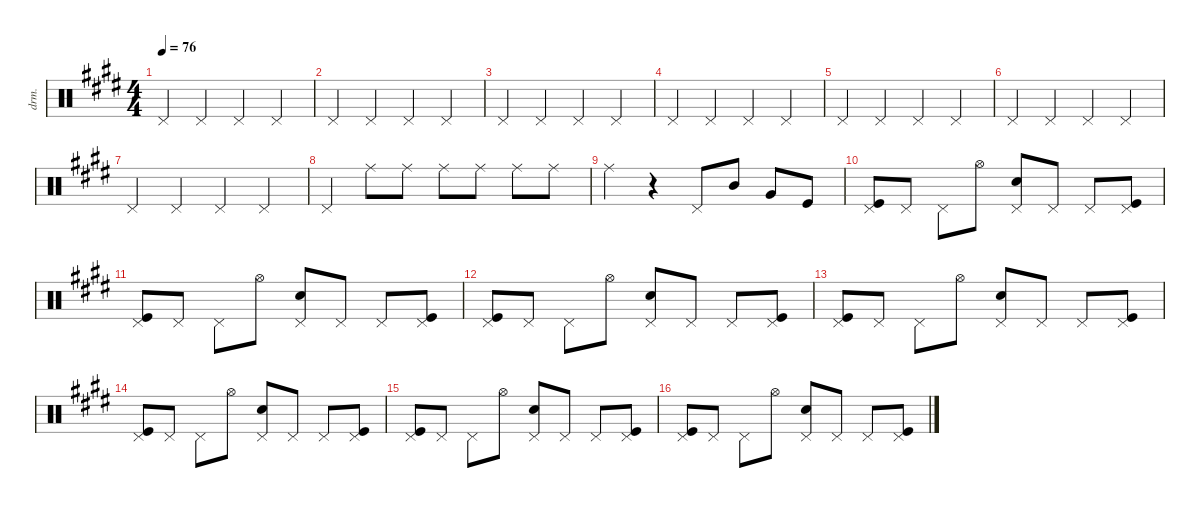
\defaultSystemsLayout 4
\hideDynamics
\bracketExtendMode nobrackets
\otherSystemsTrackNameOrientation horizontal
\track ("Drums" "drm.") {instrument percussion}
\staff {score}
\articulation defaults
\ts (4 4)
\tempo 76
\clef neutral
\ks c#minor "Pedal Hi-Hat (hit)"{acc forcenatural}.4{dy f} "Pedal Hi-Hat (hit)"{acc forcenatural}.4 "Pedal Hi-Hat (hit)"{acc forcenatural}.4 "Pedal Hi-Hat (hit)"{acc forcenatural}.4
|
"Pedal Hi-Hat (hit)"{acc forcenatural}.4 "Pedal Hi-Hat (hit)"{acc forcenatural}.4 "Pedal Hi-Hat (hit)"{acc forcenatural}.4 "Pedal Hi-Hat (hit)"{acc forcenatural}.4 |
"Pedal Hi-Hat (hit)"{acc forcenatural}.4 "Pedal Hi-Hat (hit)"{acc forcenatural}.4 "Pedal Hi-Hat (hit)"{acc forcenatural}.4 "Pedal Hi-Hat (hit)"{acc forcenatural}.4 |
"Pedal Hi-Hat (hit)"{acc forcenatural}.4 "Pedal Hi-Hat (hit)"{acc forcenatural}.4 "Pedal Hi-Hat (hit)"{acc forcenatural}.4 "Pedal Hi-Hat (hit)"{acc forcenatural}.4 |
"Pedal Hi-Hat (hit)"{acc forcenatural}.4 "Pedal Hi-Hat (hit)"{acc forcenatural}.4 "Pedal Hi-Hat (hit)"{acc forcenatural}.4 "Pedal Hi-Hat (hit)"{acc forcenatural}.4 |
"Pedal Hi-Hat (hit)"{acc forcenatural}.4 "Pedal Hi-Hat (hit)"{acc forcenatural}.4 "Pedal Hi-Hat (hit)"{acc forcenatural}.4 "Pedal Hi-Hat (hit)"{acc forcenatural}.4 |
"Pedal Hi-Hat (hit)"{acc forcenatural}.4 "Pedal Hi-Hat (hit)"{acc forcenatural}.4 "Pedal Hi-Hat (hit)"{acc forcenatural}.4 "Pedal Hi-Hat (hit)"{acc forcenatural}.4 |
"Pedal Hi-Hat (hit)"{acc forcenatural}.4 "Ride (middle)"{acc forcenatural}.8 "Ride (middle)"{acc forcenatural}.8 "Ride (middle)"{acc forcenatural}.8 "Ride (middle)"{acc forcenatural}.8 "Ride (middle)"{acc forcenatural}.8 "Ride (middle)"{acc forcenatural}.8 |
"Ride (middle)"{acc forcenatural}.4 r.4 "Pedal Hi-Hat (hit)"{acc forcenatural}.8 "Mid Tom (hit)"{acc forcenatural}.8 "Very Low Tom (hit)"{acc forcenatural}.8 "Kick (hit)"{acc forcenatural}.8 |
("Pedal Hi-Hat (hit)"{acc forcenatural} "Kick (hit)"{acc forcenatural}).8 "Pedal Hi-Hat (hit)"{acc forcenatural}.8 "Pedal Hi-Hat (hit)"{acc forcenatural}.8 "Hi-Hat (open)"{acc forcenatural}.8 ("Snare (hit) 2"{acc forcenatural} "Pedal Hi-Hat (hit)"{acc forcenatural}).8 "Pedal Hi-Hat (hit)"{acc forcenatural}.8 "Pedal Hi-Hat (hit)"{acc forcenatural}.8 ("Kick (hit)"{acc forcenatural} "Pedal Hi-Hat (hit)"{acc forcenatural}).8 |
("Pedal Hi-Hat (hit)"{acc forcenatural} "Kick (hit)"{acc forcenatural}).8 "Pedal Hi-Hat (hit)"{acc forcenatural}.8 "Pedal Hi-Hat (hit)"{acc forcenatural}.8 "Hi-Hat (open)"{acc forcenatural}.8 ("Snare (hit) 2"{acc forcenatural} "Pedal Hi-Hat (hit)"{acc forcenatural}).8 "Pedal Hi-Hat (hit)"{acc forcenatural}.8 "Pedal Hi-Hat (hit)"{acc forcenatural}.8 ("Kick (hit)"{acc forcenatural} "Pedal Hi-Hat (hit)"{acc forcenatural}).8 |
("Pedal Hi-Hat (hit)"{acc forcenatural} "Kick (hit)"{acc forcenatural}).8 "Pedal Hi-Hat (hit)"{acc forcenatural}.8 "Pedal Hi-Hat (hit)"{acc forcenatural}.8 "Hi-Hat (open)"{acc forcenatural}.8 ("Snare (hit) 2"{acc forcenatural} "Pedal Hi-Hat (hit)"{acc forcenatural}).8 "Pedal Hi-Hat (hit)"{acc forcenatural}.8 "Pedal Hi-Hat (hit)"{acc forcenatural}.8 ("Kick (hit)"{acc forcenatural} "Pedal Hi-Hat (hit)"{acc forcenatural}).8 |
("Pedal Hi-Hat (hit)"{acc forcenatural} "Kick (hit)"{acc forcenatural}).8 "Pedal Hi-Hat (hit)"{acc forcenatural}.8 "Pedal Hi-Hat (hit)"{acc forcenatural}.8 "Hi-Hat (open)"{acc forcenatural}.8 ("Snare (hit) 2"{acc forcenatural} "Pedal Hi-Hat (hit)"{acc forcenatural}).8 "Pedal Hi-Hat (hit)"{acc forcenatural}.8 "Pedal Hi-Hat (hit)"{acc forcenatural}.8 ("Kick (hit)"{acc forcenatural} "Pedal Hi-Hat (hit)"{acc forcenatural}).8 |
("Pedal Hi-Hat (hit)"{acc forcenatural} "Kick (hit)"{acc forcenatural}).8 "Pedal Hi-Hat (hit)"{acc forcenatural}.8 "Pedal Hi-Hat (hit)"{acc forcenatural}.8 "Hi-Hat (open)"{acc forcenatural}.8 ("Snare (hit) 2"{acc forcenatural} "Pedal Hi-Hat (hit)"{acc forcenatural}).8 "Pedal Hi-Hat (hit)"{acc forcenatural}.8 "Pedal Hi-Hat (hit)"{acc forcenatural}.8 ("Kick (hit)"{acc forcenatural} "Pedal Hi-Hat (hit)"{acc forcenatural}).8 |
("Pedal Hi-Hat (hit)"{acc forcenatural} "Kick (hit)"{acc forcenatural}).8 "Pedal Hi-Hat (hit)"{acc forcenatural}.8 "Pedal Hi-Hat (hit)"{acc forcenatural}.8 "Hi-Hat (open)"{acc forcenatural}.8 ("Snare (hit) 2"{acc forcenatural} "Pedal Hi-Hat (hit)"{acc forcenatural}).8 "Pedal Hi-Hat (hit)"{acc forcenatural}.8 "Pedal Hi-Hat (hit)"{acc forcenatural}.8 ("Kick (hit)"{acc forcenatural} "Pedal Hi-Hat (hit)"{acc forcenatural}).8 |
("Pedal Hi-Hat (hit)"{acc forcenatural} "Kick (hit)"{acc forcenatural}).8 "Pedal Hi-Hat (hit)"{acc forcenatural}.8 "Pedal Hi-Hat (hit)"{acc forcenatural}.8 "Hi-Hat (open)"{acc forcenatural}.8 ("Snare (hit) 2"{acc forcenatural} "Pedal Hi-Hat (hit)"{acc forcenatural}).8 "Pedal Hi-Hat (hit)"{acc forcenatural}.8 "Pedal Hi-Hat (hit)"{acc forcenatural}.8 ("Kick (hit)"{acc forcenatural} "Pedal Hi-Hat (hit)"{acc forcenatural}).8
